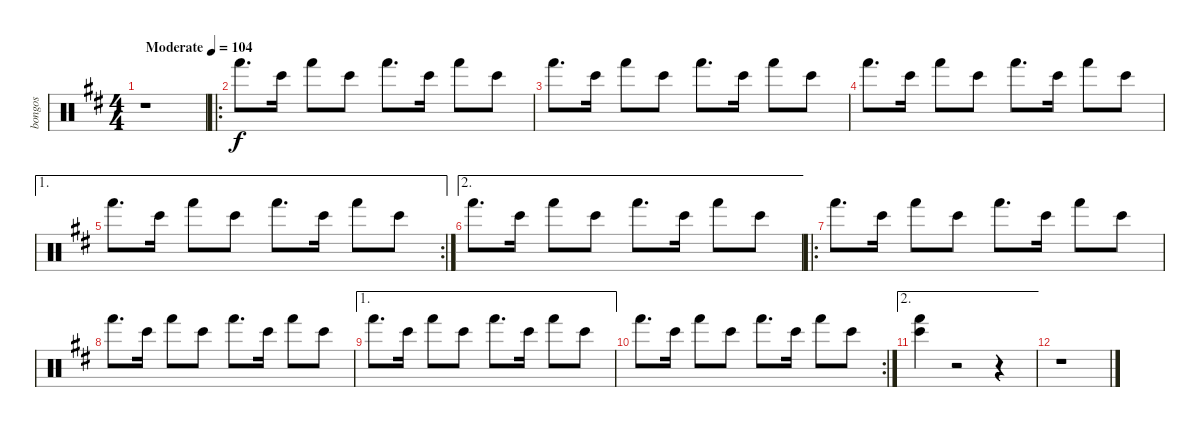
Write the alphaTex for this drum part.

\track ("bongos" "bongos") {instrument percussion}
\staff {score}
\articulation defaults
\ts (4 4)
\tempo (104 "Moderate")
\clef neutral
\ks d
r.1{dy f} |
\ro "Hand (hit)".8{d} "Bongo High (hit)".16 "Hand (hit)".8 "Bongo High (hit)".8 "Hand (hit)".8{d} "Bongo High (hit)".16 "Hand (hit)".8 "Bongo High (hit)".8
|
"Hand (hit)".8{d} "Bongo High (hit)".16 "Hand (hit)".8 "Bongo High (hit)".8 "Hand (hit)".8{d} "Bongo High (hit)".16 "Hand (hit)".8 "Bongo High (hit)".8 |
"Hand (hit)".8{d} "Bongo High (hit)".16 "Hand (hit)".8 "Bongo High (hit)".8 "Hand (hit)".8{d} "Bongo High (hit)".16 "Hand (hit)".8 "Bongo High (hit)".8 |
\ae 1
\rc 2 "Hand (hit)".8{d} "Bongo High (hit)".16 "Hand (hit)".8 "Bongo High (hit)".8 "Hand (hit)".8{d} "Bongo High (hit)".16 "Hand (hit)".8 "Bongo High (hit)".8
|
\ae 2 "Hand (hit)".8{d} "Bongo High (hit)".16 "Hand (hit)".8 "Bongo High (hit)".8 "Hand (hit)".8{d} "Bongo High (hit)".16 "Hand (hit)".8 "Bongo High (hit)".8
|
\ro "Hand (hit)".8{d} "Bongo High (hit)".16 "Hand (hit)".8 "Bongo High (hit)".8 "Hand (hit)".8{d} "Bongo High (hit)".16 "Hand (hit)".8 "Bongo High (hit)".8
|
"Hand (hit)".8{d} "Bongo High (hit)".16 "Hand (hit)".8 "Bongo High (hit)".8 "Hand (hit)".8{d} "Bongo High (hit)".16 "Hand (hit)".8 "Bongo High (hit)".8 |
\ae 1 "Hand (hit)".8{d} "Bongo High (hit)".16 "Hand (hit)".8 "Bongo High (hit)".8 "Hand (hit)".8{d} "Bongo High (hit)".16 "Hand (hit)".8 "Bongo High (hit)".8
|
\rc 2 "Hand (hit)".8{d} "Bongo High (hit)".16 "Hand (hit)".8 "Bongo High (hit)".8 "Hand (hit)".8{d} "Bongo High (hit)".16 "Hand (hit)".8 "Bongo High (hit)".8
|
\ae 2
("Hand (hit)" "Bongo High (hit)").4 r.2 r.4 |
r.1
